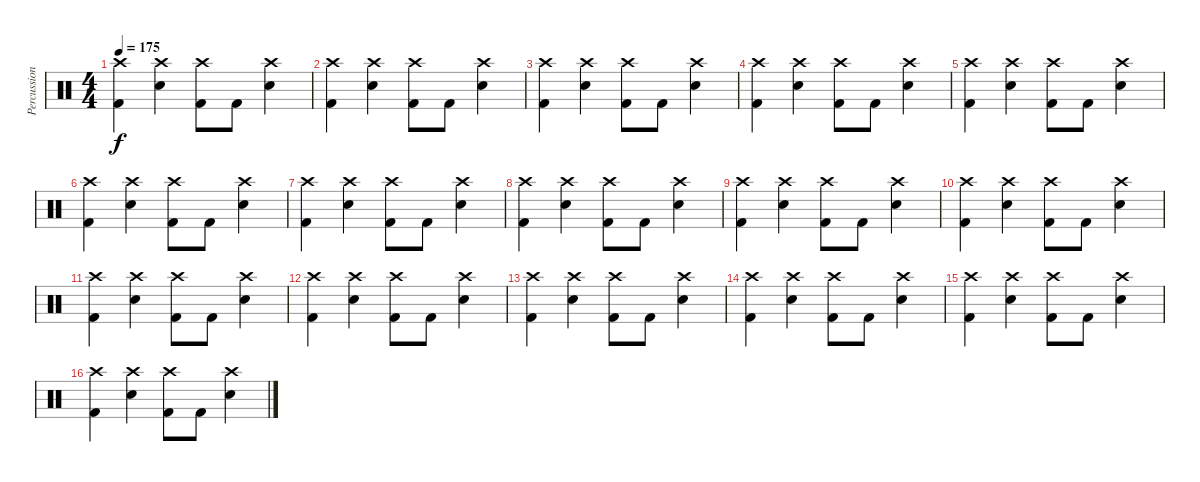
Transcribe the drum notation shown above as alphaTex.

\track ("Percussion" "Percussion") {instrument percussion}
\staff {score}
\articulation defaults
\ts (4 4)
\tempo 175
\clef neutral
\ks c
("Kick (hit) 2" "Crash high (hit)").4{dy f} ("Electric Snare (hit)" "Crash high (hit)").4 ("Kick (hit) 2" "Crash high (hit)").8 "Kick (hit) 2".8 ("Electric Snare (hit)" "Crash high (hit)").4 |
("Kick (hit) 2" "Crash high (hit)").4 ("Electric Snare (hit)" "Crash high (hit)").4 ("Kick (hit) 2" "Crash high (hit)").8 "Kick (hit) 2".8 ("Electric Snare (hit)" "Crash high (hit)").4 |
("Kick (hit) 2" "Crash high (hit)").4 ("Electric Snare (hit)" "Crash high (hit)").4 ("Kick (hit) 2" "Crash high (hit)").8 "Kick (hit) 2".8 ("Electric Snare (hit)" "Crash high (hit)").4 |
("Kick (hit) 2" "Crash high (hit)").4 ("Electric Snare (hit)" "Crash high (hit)").4 ("Kick (hit) 2" "Crash high (hit)").8 "Kick (hit) 2".8 ("Electric Snare (hit)" "Crash high (hit)").4 |
("Kick (hit) 2" "Crash high (hit)").4 ("Electric Snare (hit)" "Crash high (hit)").4 ("Kick (hit) 2" "Crash high (hit)").8 "Kick (hit) 2".8 ("Electric Snare (hit)" "Crash high (hit)").4 |
("Kick (hit) 2" "Crash high (hit)").4 ("Electric Snare (hit)" "Crash high (hit)").4 ("Kick (hit) 2" "Crash high (hit)").8 "Kick (hit) 2".8 ("Electric Snare (hit)" "Crash high (hit)").4 |
("Kick (hit) 2" "Crash high (hit)").4 ("Electric Snare (hit)" "Crash high (hit)").4 ("Kick (hit) 2" "Crash high (hit)").8 "Kick (hit) 2".8 ("Electric Snare (hit)" "Crash high (hit)").4 |
("Kick (hit) 2" "Crash high (hit)").4 ("Electric Snare (hit)" "Crash high (hit)").4 ("Kick (hit) 2" "Crash high (hit)").8 "Kick (hit) 2".8 ("Electric Snare (hit)" "Crash high (hit)").4 |
("Kick (hit) 2" "Crash high (hit)").4 ("Electric Snare (hit)" "Crash high (hit)").4 ("Kick (hit) 2" "Crash high (hit)").8 "Kick (hit) 2".8 ("Electric Snare (hit)" "Crash high (hit)").4 |
("Kick (hit) 2" "Crash high (hit)").4 ("Electric Snare (hit)" "Crash high (hit)").4 ("Kick (hit) 2" "Crash high (hit)").8 "Kick (hit) 2".8 ("Electric Snare (hit)" "Crash high (hit)").4 |
("Kick (hit) 2" "Crash high (hit)").4 ("Electric Snare (hit)" "Crash high (hit)").4 ("Kick (hit) 2" "Crash high (hit)").8 "Kick (hit) 2".8 ("Electric Snare (hit)" "Crash high (hit)").4 |
("Kick (hit) 2" "Crash high (hit)").4 ("Electric Snare (hit)" "Crash high (hit)").4 ("Kick (hit) 2" "Crash high (hit)").8 "Kick (hit) 2".8 ("Electric Snare (hit)" "Crash high (hit)").4 |
("Kick (hit) 2" "Crash high (hit)").4 ("Electric Snare (hit)" "Crash high (hit)").4 ("Kick (hit) 2" "Crash high (hit)").8 "Kick (hit) 2".8 ("Electric Snare (hit)" "Crash high (hit)").4 |
("Kick (hit) 2" "Crash high (hit)").4 ("Electric Snare (hit)" "Crash high (hit)").4 ("Kick (hit) 2" "Crash high (hit)").8 "Kick (hit) 2".8 ("Electric Snare (hit)" "Crash high (hit)").4 |
("Kick (hit) 2" "Crash high (hit)").4 ("Electric Snare (hit)" "Crash high (hit)").4 ("Kick (hit) 2" "Crash high (hit)").8 "Kick (hit) 2".8 ("Electric Snare (hit)" "Crash high (hit)").4 |
("Kick (hit) 2" "Crash high (hit)").4 ("Electric Snare (hit)" "Crash high (hit)").4 ("Kick (hit) 2" "Crash high (hit)").8 "Kick (hit) 2".8 ("Electric Snare (hit)" "Crash high (hit)").4
